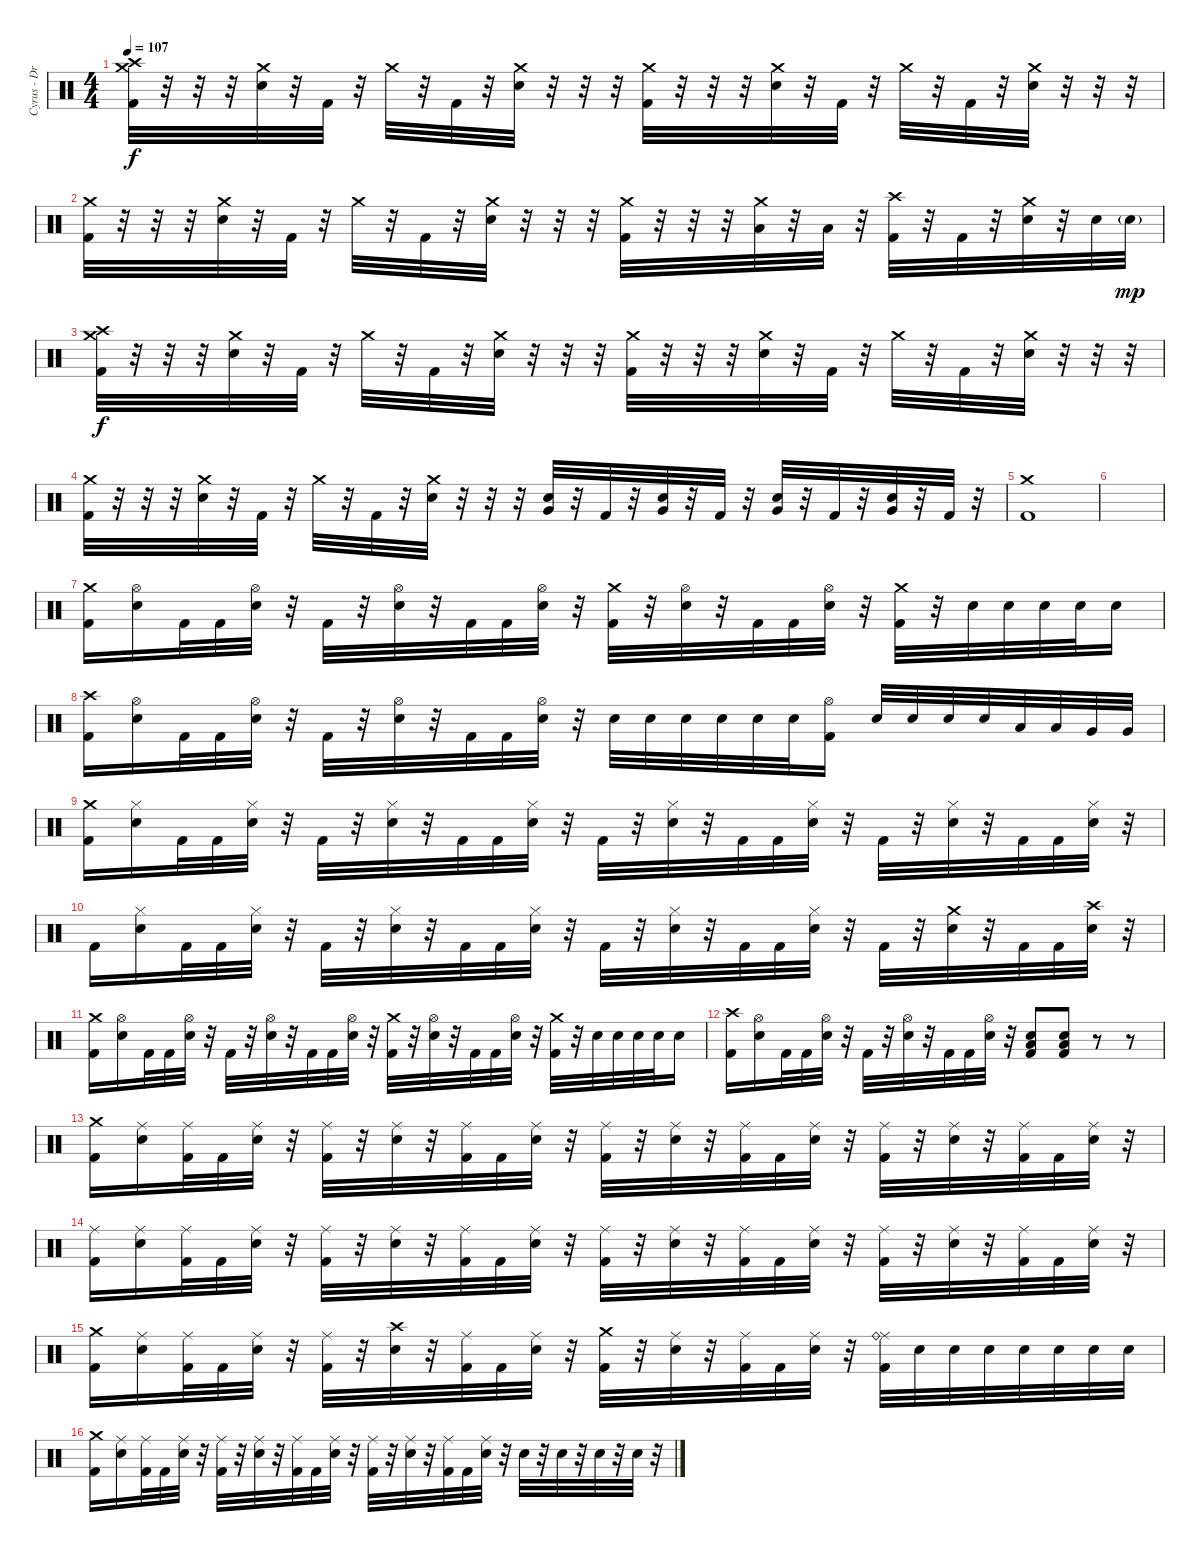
\track ("Cyrus - Drums" "Cyrus - Dr") {instrument percussion}
\staff {score}
\articulation defaults
\ts (4 4)
\tempo 107
\clef neutral
\ks c
("Crash medium (hit)" "Crash high (hit)" "Kick (hit) 2").32{dy f} r.32 r.32 r.32 ("Crash medium (hit)" "Electric Snare (hit)").32 r.32 "Kick (hit) 2".32 r.32 "Crash medium (hit)".32 r.32 "Kick (hit) 2".32 r.32 ("Crash medium (hit)" "Electric Snare (hit)").32 r.32 r.32 r.32 ("Crash medium (hit)" "Kick (hit) 2").32 r.32 r.32 r.32 ("Crash medium (hit)" "Electric Snare (hit)").32 r.32 "Kick (hit) 2".32 r.32 "Crash medium (hit)".32 r.32 "Kick (hit) 2".32 r.32 ("Crash medium (hit)" "Electric Snare (hit)").32 r.32 r.32 r.32 |
("Crash medium (hit)" "Kick (hit) 2").32 r.32 r.32 r.32 ("Crash medium (hit)" "Electric Snare (hit)").32 r.32 "Kick (hit) 2".32 r.32 "Crash medium (hit)".32 r.32 "Kick (hit) 2".32 r.32 ("Crash medium (hit)" "Electric Snare (hit)").32 r.32 r.32 r.32 ("Crash medium (hit)" "Kick (hit) 2").32 r.32 r.32 r.32 ("Crash medium (hit)" "Low Tom (hit)").32 r.32 "Low Tom (hit)".32 r.32 ("Crash high (hit)" "Kick (hit) 2").32 r.32 "Kick (hit) 2".32 r.32 ("Crash medium (hit)" "Electric Snare (hit)").32 r.32 "Electric Snare (hit)".32 "Electric Snare (hit)"{g}.32{dy mp} |
("Crash medium (hit)" "Crash high (hit)" "Kick (hit) 2").32{dy f} r.32 r.32 r.32 ("Crash medium (hit)" "Electric Snare (hit)").32 r.32 "Kick (hit) 2".32 r.32 "Crash medium (hit)".32 r.32 "Kick (hit) 2".32 r.32 ("Crash medium (hit)" "Electric Snare (hit)").32 r.32 r.32 r.32 ("Crash medium (hit)" "Kick (hit) 2").32 r.32 r.32 r.32 ("Crash medium (hit)" "Electric Snare (hit)").32 r.32 "Kick (hit) 2".32 r.32 "Crash medium (hit)".32 r.32 "Kick (hit) 2".32 r.32 ("Crash medium (hit)" "Electric Snare (hit)").32 r.32 r.32 r.32 |
("Crash medium (hit)" "Kick (hit) 2").32 r.32 r.32 r.32 ("Crash medium (hit)" "Electric Snare (hit)").32 r.32 "Kick (hit) 2".32 r.32 "Crash medium (hit)".32 r.32 "Kick (hit) 2".32 r.32 ("Crash medium (hit)" "Electric Snare (hit)").32 r.32 r.32 r.32 ("Very Low Tom (hit)" "Electric Snare (hit)").32 r.32 "Kick (hit) 2".32 r.32 ("Very Low Tom (hit)" "Electric Snare (hit)").32 r.32 "Kick (hit) 2".32 r.32 ("Very Low Tom (hit)" "Electric Snare (hit)").32 r.32 "Kick (hit) 2".32 r.32 ("Very Low Tom (hit)" "Electric Snare (hit)").32 r.32 "Kick (hit) 2".32 r.32 |
("Crash medium (hit)" "Kick (hit) 2").1 |
|
("Crash medium (hit)" "Kick (hit) 2").16 ("Hi-Hat (open)" "Electric Snare (hit)").16 "Kick (hit) 2".32 "Kick (hit) 2".32 ("Hi-Hat (open)" "Electric Snare (hit)").32 r.32 "Kick (hit) 2".32 r.32 ("Hi-Hat (open)" "Electric Snare (hit)").32 r.32 "Kick (hit) 2".32 "Kick (hit) 2".32 ("Hi-Hat (open)" "Electric Snare (hit)").32 r.32 ("Crash medium (hit)" "Kick (hit) 2").32 r.32 ("Hi-Hat (open)" "Electric Snare (hit)").32 r.32 "Kick (hit) 2".32 "Kick (hit) 2".32 ("Hi-Hat (open)" "Electric Snare (hit)").32 r.32 ("Crash medium (hit)" "Kick (hit) 2").32 r.32 "Electric Snare (hit)".32 "Electric Snare (hit)".32 "Electric Snare (hit)".32 "Electric Snare (hit)".32 "Electric Snare (hit)".16 |
("Crash high (hit)" "Kick (hit) 2").16 ("Hi-Hat (open)" "Electric Snare (hit)").16 "Kick (hit) 2".32 "Kick (hit) 2".32 ("Hi-Hat (open)" "Electric Snare (hit)").32 r.32 "Kick (hit) 2".32 r.32 ("Hi-Hat (open)" "Electric Snare (hit)").32 r.32 "Kick (hit) 2".32 "Kick (hit) 2".32 ("Hi-Hat (open)" "Electric Snare (hit)").32 r.32 "Electric Snare (hit)".32 "Electric Snare (hit)".32 "Electric Snare (hit)".32 "Electric Snare (hit)".32 "Electric Snare (hit)".32 "Electric Snare (hit)".32 ("Hi-Hat (open)" "Kick (hit) 2").16 "Electric Snare (hit)".32 "Electric Snare (hit)".32 "Electric Snare (hit)".32 "Electric Snare (hit)".32 "Low Tom (hit)".32 "Low Tom (hit)".32 "Very Low Tom (hit)".32 "Very Low Tom (hit)".32 |
("Crash medium (hit)" "Kick (hit) 2").16 ("Hi-Hat (closed)" "Electric Snare (hit)").16 "Kick (hit) 2".32 "Kick (hit) 2".32 ("Hi-Hat (closed)" "Electric Snare (hit)").32 r.32 "Kick (hit) 2".32 r.32 ("Hi-Hat (closed)" "Electric Snare (hit)").32 r.32 "Kick (hit) 2".32 "Kick (hit) 2".32 ("Hi-Hat (closed)" "Electric Snare (hit)").32 r.32 "Kick (hit) 2".32 r.32 ("Hi-Hat (closed)" "Electric Snare (hit)").32 r.32 "Kick (hit) 2".32 "Kick (hit) 2".32 ("Hi-Hat (closed)" "Electric Snare (hit)").32 r.32 "Kick (hit) 2".32 r.32 ("Hi-Hat (closed)" "Electric Snare (hit)").32 r.32 "Kick (hit) 2".32 "Kick (hit) 2".32 ("Hi-Hat (closed)" "Electric Snare (hit)").32 r.32 |
"Kick (hit) 2".16 ("Hi-Hat (closed)" "Electric Snare (hit)").16 "Kick (hit) 2".32 "Kick (hit) 2".32 ("Hi-Hat (closed)" "Electric Snare (hit)").32 r.32 "Kick (hit) 2".32 r.32 ("Hi-Hat (closed)" "Electric Snare (hit)").32 r.32 "Kick (hit) 2".32 "Kick (hit) 2".32 ("Hi-Hat (closed)" "Electric Snare (hit)").32 r.32 "Kick (hit) 2".32 r.32 ("Hi-Hat (closed)" "Electric Snare (hit)").32 r.32 "Kick (hit) 2".32 "Kick (hit) 2".32 ("Hi-Hat (closed)" "Electric Snare (hit)").32 r.32 "Kick (hit) 2".32 r.32 ("Crash medium (hit)" "Electric Snare (hit)").32 r.32 "Kick (hit) 2".32 "Kick (hit) 2".32 ("Crash high (hit)" "Electric Snare (hit)").32 r.32 |
("Crash medium (hit)" "Kick (hit) 2").16 ("Hi-Hat (open)" "Electric Snare (hit)").16 "Kick (hit) 2".32 "Kick (hit) 2".32 ("Hi-Hat (open)" "Electric Snare (hit)").32 r.32 "Kick (hit) 2".32 r.32 ("Hi-Hat (open)" "Electric Snare (hit)").32 r.32 "Kick (hit) 2".32 "Kick (hit) 2".32 ("Hi-Hat (open)" "Electric Snare (hit)").32 r.32 ("Crash medium (hit)" "Kick (hit) 2").32 r.32 ("Hi-Hat (open)" "Electric Snare (hit)").32 r.32 "Kick (hit) 2".32 "Kick (hit) 2".32 ("Hi-Hat (open)" "Electric Snare (hit)").32 r.32 ("Crash medium (hit)" "Kick (hit) 2").32 r.32 "Electric Snare (hit)".32 "Electric Snare (hit)".32 "Electric Snare (hit)".32 "Electric Snare (hit)".32 "Electric Snare (hit)".16 |
("Crash high (hit)" "Kick (hit) 2").16 ("Hi-Hat (open)" "Electric Snare (hit)").16 "Kick (hit) 2".32 "Kick (hit) 2".32 ("Hi-Hat (open)" "Electric Snare (hit)").32 r.32 "Kick (hit) 2".32 r.32 ("Hi-Hat (open)" "Electric Snare (hit)").32 r.32 "Kick (hit) 2".32 "Kick (hit) 2".32 ("Hi-Hat (open)" "Electric Snare (hit)").32 r.32 ("Electric Snare (hit)" "Low Tom (hit)" "Kick (hit) 2").8 ("Electric Snare (hit)" "Low Tom (hit)" "Kick (hit) 2").8 r.8 r.8 |
("Crash medium (hit)" "Kick (hit) 2").16 ("Ride (middle)" "Electric Snare (hit)").16 ("Ride (middle)" "Kick (hit) 2").32 "Kick (hit) 2".32 ("Ride (middle)" "Electric Snare (hit)").32 r.32 ("Ride (middle)" "Kick (hit) 2").32 r.32 ("Ride (middle)" "Electric Snare (hit)").32 r.32 ("Ride (middle)" "Kick (hit) 2").32 "Kick (hit) 2".32 ("Ride (middle)" "Electric Snare (hit)").32 r.32 ("Ride (middle)" "Kick (hit) 2").32 r.32 ("Ride (middle)" "Electric Snare (hit)").32 r.32 ("Ride (middle)" "Kick (hit) 2").32 "Kick (hit) 2".32 ("Ride (middle)" "Electric Snare (hit)").32 r.32 ("Ride (middle)" "Kick (hit) 2").32 r.32 ("Ride (middle)" "Electric Snare (hit)").32 r.32 ("Ride (middle)" "Kick (hit) 2").32 "Kick (hit) 2".32 ("Ride (middle)" "Electric Snare (hit)").32 r.32 |
("Ride (middle)" "Kick (hit) 2").16 ("Ride (middle)" "Electric Snare (hit)").16 ("Ride (middle)" "Kick (hit) 2").32 "Kick (hit) 2".32 ("Ride (middle)" "Electric Snare (hit)").32 r.32 ("Ride (middle)" "Kick (hit) 2").32 r.32 ("Ride (middle)" "Electric Snare (hit)").32 r.32 ("Ride (middle)" "Kick (hit) 2").32 "Kick (hit) 2".32 ("Ride (middle)" "Electric Snare (hit)").32 r.32 ("Ride (middle)" "Kick (hit) 2").32 r.32 ("Ride (middle)" "Electric Snare (hit)").32 r.32 ("Ride (middle)" "Kick (hit) 2").32 "Kick (hit) 2".32 ("Ride (middle)" "Electric Snare (hit)").32 r.32 ("Ride (middle)" "Kick (hit) 2").32 r.32 ("Ride (middle)" "Electric Snare (hit)").32 r.32 ("Ride (middle)" "Kick (hit) 2").32 "Kick (hit) 2".32 ("Ride (middle)" "Electric Snare (hit)").32 r.32 |
("Crash medium (hit)" "Kick (hit) 2").16 ("Ride (middle)" "Electric Snare (hit)").16 ("Ride (middle)" "Kick (hit) 2").32 "Kick (hit) 2".32 ("Ride (middle)" "Electric Snare (hit)").32 r.32 ("Ride (middle)" "Kick (hit) 2").32 r.32 ("Crash high (hit)" "Electric Snare (hit)").32 r.32 ("Ride (middle)" "Kick (hit) 2").32 "Kick (hit) 2".32 ("Ride (middle)" "Electric Snare (hit)").32 r.32 ("Crash medium (hit)" "Kick (hit) 2").32 r.32 ("Ride (middle)" "Electric Snare (hit)").32 r.32 ("Ride (middle)" "Kick (hit) 2").32 "Kick (hit) 2".32 ("Ride (middle)" "Electric Snare (hit)").32 r.32 ("Ride (middle)" "Ride (bell)" "Kick (hit) 2").32 "Electric Snare (hit)".32 "Electric Snare (hit)".32 "Electric Snare (hit)".32 "Electric Snare (hit)".32 "Electric Snare (hit)".32 "Electric Snare (hit)".32 "Electric Snare (hit)".32 |
("Crash medium (hit)" "Kick (hit) 2").16 ("Ride (middle)" "Electric Snare (hit)").16 ("Ride (middle)" "Kick (hit) 2").32 "Kick (hit) 2".32 ("Ride (middle)" "Electric Snare (hit)").32 r.32 ("Ride (middle)" "Kick (hit) 2").32 r.32 ("Ride (middle)" "Electric Snare (hit)").32 r.32 ("Ride (middle)" "Kick (hit) 2").32 "Kick (hit) 2".32 ("Ride (middle)" "Electric Snare (hit)").32 r.32 ("Ride (middle)" "Kick (hit) 2").32 r.32 ("Ride (middle)" "Electric Snare (hit)").32 r.32 ("Ride (middle)" "Kick (hit) 2").32 "Kick (hit) 2".32 ("Ride (middle)" "Electric Snare (hit)").32 r.32 "Electric Snare (hit)".32 r.32 "Electric Snare (hit)".32 r.32 "Electric Snare (hit)".32 r.32 "Electric Snare (hit)".32 r.32
